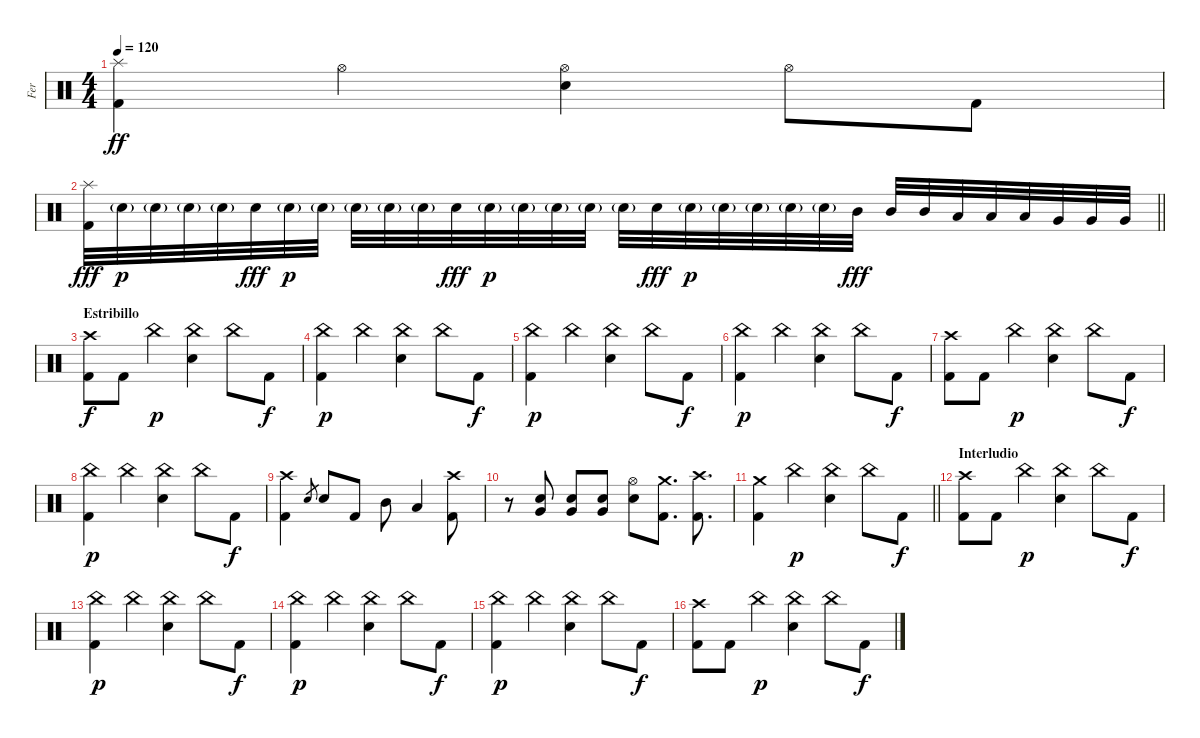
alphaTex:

\track ("Fer" "Fer") {instrument percussion}
\staff {score}
\articulation defaults
\ts (4 4)
\tempo 120
\clef neutral
\ks c
("Splash (hit)" "Kick (hit) 2").4{dy ff} "Hi-Hat (open)".4 ("Hi-Hat (open)" "Snare (hit) 2").4 "Hi-Hat (open)".8 "Kick (hit) 2".8 |
\barLineRight lightlight
("Splash (hit)" "Kick (hit) 2").32{dy fff} "Snare (hit) 2"{g}.32{dy p} "Snare (hit) 2"{g}.32 "Snare (hit) 2"{g}.32 "Snare (hit) 2"{g}.32 "Snare (hit) 2".32{dy fff} "Snare (hit) 2"{g}.32{dy p} "Snare (hit) 2"{g}.32 "Snare (hit) 2"{g}.32 "Snare (hit) 2"{g}.32 "Snare (hit) 2"{g}.32 "Snare (hit) 2".32{dy fff} "Snare (hit) 2"{g}.32{dy p} "Snare (hit) 2"{g}.32 "Snare (hit) 2"{g}.32 "Snare (hit) 2"{g}.32 "Snare (hit) 2"{g}.32 "Snare (hit) 2".32{dy fff} "Snare (hit) 2"{g}.32{dy p} "Snare (hit) 2"{g}.32 "Snare (hit) 2"{g}.32 "Snare (hit) 2"{g}.32 "Snare (hit) 2"{g}.32 "Mid Tom (hit)".32{dy fff} "Mid Tom (hit)".32 "Mid Tom (hit)".32 "Low Tom (hit)".32 "Low Tom (hit)".32 "Low Tom (hit)".32 "Very Low Tom (hit)".32 "Very Low Tom (hit)".32 "Very Low Tom (hit)".32 |
\section ("" "Estribillo")
("Crash high (hit)" "Kick (hit) 2").8{dy f} "Kick (hit) 2".8 "China (hit)".4{dy p} ("China (hit)" "Snare (hit) 2").4 "China (hit)".8 "Kick (hit) 2".8{dy f} |
("China (hit)" "Kick (hit) 2").4{dy p} "China (hit)".4 ("China (hit)" "Snare (hit) 2").4 "China (hit)".8 "Kick (hit) 2".8{dy f} |
("China (hit)" "Kick (hit) 2").4{dy p} "China (hit)".4 ("China (hit)" "Snare (hit) 2").4 "China (hit)".8 "Kick (hit) 2".8{dy f} |
("China (hit)" "Kick (hit) 2").4{dy p} "China (hit)".4 ("China (hit)" "Snare (hit) 2").4 "China (hit)".8 "Kick (hit) 2".8{dy f} |
("Crash high (hit)" "Kick (hit) 2").8 "Kick (hit) 2".8 "China (hit)".4{dy p} ("China (hit)" "Snare (hit) 2").4 "China (hit)".8 "Kick (hit) 2".8{dy f} |
("China (hit)" "Kick (hit) 2").4{dy p} "China (hit)".4 ("China (hit)" "Snare (hit) 2").4 "China (hit)".8 "Kick (hit) 2".8{dy f} |
("Crash high (hit)" "Kick (hit) 2").4 "Snare (hit) 2".8{gr} "Snare (hit) 2".8 "Kick (hit) 2".8 "Mid Tom (hit)".8 "Low Tom (hit)".4 ("Crash high (hit)" "Kick (hit) 2").8 |
r.8 ("Snare (hit) 2" "Very Low Tom (hit)").8 ("Snare (hit) 2" "Very Low Tom (hit)").8 ("Snare (hit) 2" "Very Low Tom (hit)").8 ("Hi-Hat (open)" "Snare (hit) 2").8 ("Crash medium (hit)" "Kick (hit) 2").8{d} ("Crash high (hit)" "Kick (hit) 2").8{d} |
\barLineRight lightlight
("Crash medium (hit)" "Kick (hit) 2").4 "China (hit)".4{dy p} ("China (hit)" "Snare (hit) 2").4 "China (hit)".8 "Kick (hit) 2".8{dy f} |
\section ("" "Interludio")
("Crash high (hit)" "Kick (hit) 2").8 "Kick (hit) 2".8 "China (hit)".4{dy p} ("China (hit)" "Snare (hit) 2").4 "China (hit)".8 "Kick (hit) 2".8{dy f} |
("China (hit)" "Kick (hit) 2").4{dy p} "China (hit)".4 ("China (hit)" "Snare (hit) 2").4 "China (hit)".8 "Kick (hit) 2".8{dy f} |
("China (hit)" "Kick (hit) 2").4{dy p} "China (hit)".4 ("China (hit)" "Snare (hit) 2").4 "China (hit)".8 "Kick (hit) 2".8{dy f} |
("China (hit)" "Kick (hit) 2").4{dy p} "China (hit)".4 ("China (hit)" "Snare (hit) 2").4 "China (hit)".8 "Kick (hit) 2".8{dy f} |
("Crash high (hit)" "Kick (hit) 2").8 "Kick (hit) 2".8 "China (hit)".4{dy p} ("China (hit)" "Snare (hit) 2").4 "China (hit)".8 "Kick (hit) 2".8{dy f}
